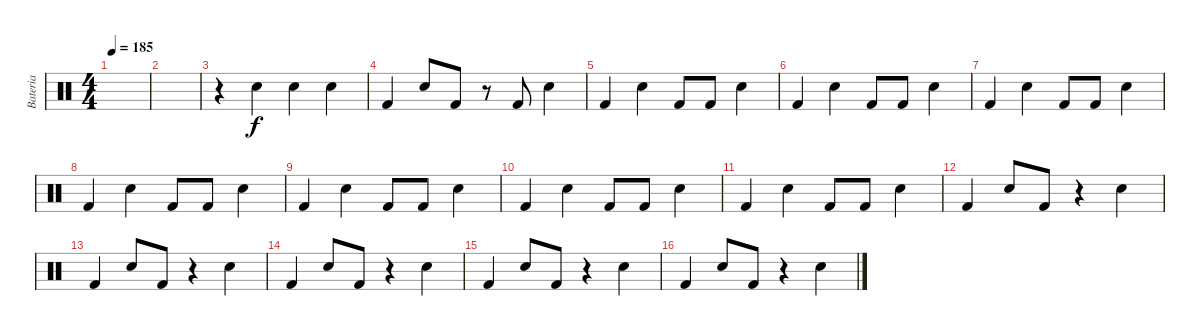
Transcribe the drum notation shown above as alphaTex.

\track ("Bateria" "Bateria") {instrument percussion}
\staff {score}
\articulation defaults
\ts (4 4)
\tempo 185
\clef neutral
\ks c
|
|
r.4 "Snare (hit) 2".4 "Snare (hit) 2".4 "Snare (hit) 2".4 |
"Kick (hit) 2".4 "Snare (hit) 2".8 "Kick (hit) 2".8 r.8 "Kick (hit) 2".8 "Snare (hit) 2".4 |
"Kick (hit) 2".4 "Snare (hit) 2".4 "Kick (hit) 2".8 "Kick (hit) 2".8 "Snare (hit) 2".4 |
"Kick (hit) 2".4 "Snare (hit) 2".4 "Kick (hit) 2".8 "Kick (hit) 2".8 "Snare (hit) 2".4 |
"Kick (hit) 2".4 "Snare (hit) 2".4 "Kick (hit) 2".8 "Kick (hit) 2".8 "Snare (hit) 2".4 |
"Kick (hit) 2".4 "Snare (hit) 2".4 "Kick (hit) 2".8 "Kick (hit) 2".8 "Snare (hit) 2".4 |
"Kick (hit) 2".4 "Snare (hit) 2".4 "Kick (hit) 2".8 "Kick (hit) 2".8 "Snare (hit) 2".4 |
"Kick (hit) 2".4 "Snare (hit) 2".4 "Kick (hit) 2".8 "Kick (hit) 2".8 "Snare (hit) 2".4 |
"Kick (hit) 2".4 "Snare (hit) 2".4 "Kick (hit) 2".8 "Kick (hit) 2".8 "Snare (hit) 2".4 |
"Kick (hit) 2".4 "Snare (hit) 2".8 "Kick (hit) 2".8 r.4 "Snare (hit) 2".4 |
"Kick (hit) 2".4 "Snare (hit) 2".8 "Kick (hit) 2".8 r.4 "Snare (hit) 2".4 |
"Kick (hit) 2".4 "Snare (hit) 2".8 "Kick (hit) 2".8 r.4 "Snare (hit) 2".4 |
"Kick (hit) 2".4 "Snare (hit) 2".8 "Kick (hit) 2".8 r.4 "Snare (hit) 2".4 |
"Kick (hit) 2".4 "Snare (hit) 2".8 "Kick (hit) 2".8 r.4 "Snare (hit) 2".4
